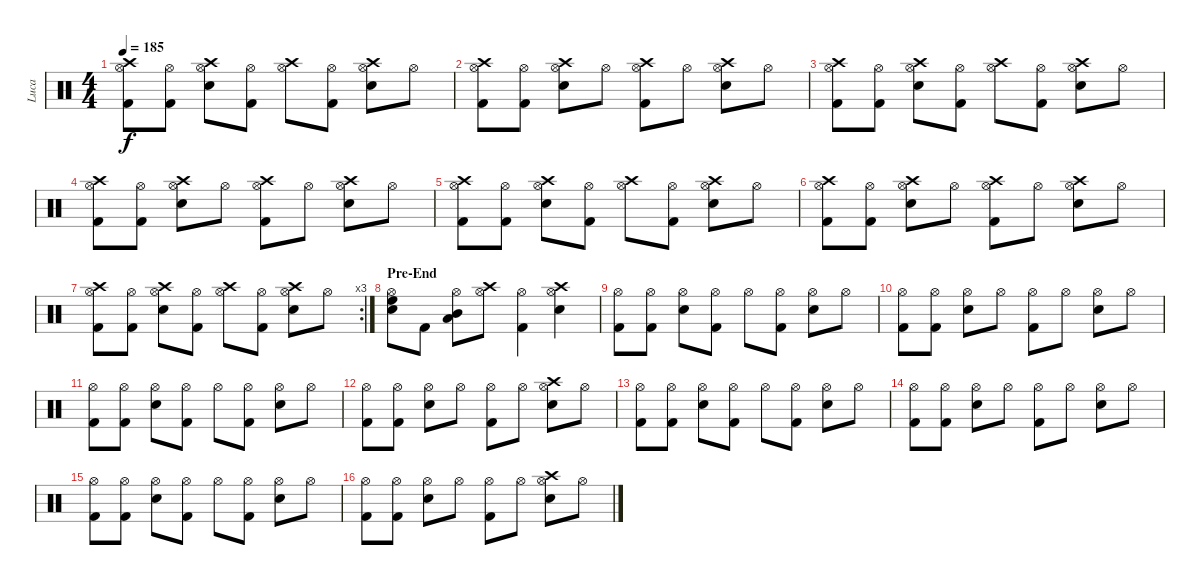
\track ("Luca" "Luca") {instrument percussion}
\staff {score}
\articulation defaults
\ts (4 4)
\tempo 185
\clef neutral
\ks c
("Hi-Hat (open)" "Crash high (hit)" "Kick (hit) 2").8{dy f} ("Hi-Hat (open)" "Kick (hit) 2").8 ("Hi-Hat (open)" "Crash high (hit)" "Snare (hit) 2").8 ("Hi-Hat (open)" "Kick (hit) 2").8 ("Hi-Hat (open)" "Crash high (hit)").8 ("Hi-Hat (open)" "Kick (hit) 2").8 ("Hi-Hat (open)" "Crash high (hit)" "Snare (hit) 2").8 "Hi-Hat (open)".8 |
("Hi-Hat (open)" "Crash high (hit)" "Kick (hit) 2").8 ("Hi-Hat (open)" "Kick (hit) 2").8 ("Hi-Hat (open)" "Crash high (hit)" "Snare (hit) 2").8 "Hi-Hat (open)".8 ("Hi-Hat (open)" "Crash high (hit)" "Kick (hit) 2").8 "Hi-Hat (open)".8 ("Hi-Hat (open)" "Crash high (hit)" "Snare (hit) 2").8 "Hi-Hat (open)".8 |
("Hi-Hat (open)" "Crash high (hit)" "Kick (hit) 2").8 ("Hi-Hat (open)" "Kick (hit) 2").8 ("Hi-Hat (open)" "Crash high (hit)" "Snare (hit) 2").8 ("Hi-Hat (open)" "Kick (hit) 2").8 ("Hi-Hat (open)" "Crash high (hit)").8 ("Hi-Hat (open)" "Kick (hit) 2").8 ("Hi-Hat (open)" "Crash high (hit)" "Snare (hit) 2").8 "Hi-Hat (open)".8 |
("Hi-Hat (open)" "Crash high (hit)" "Kick (hit) 2").8 ("Hi-Hat (open)" "Kick (hit) 2").8 ("Hi-Hat (open)" "Crash high (hit)" "Snare (hit) 2").8 "Hi-Hat (open)".8 ("Hi-Hat (open)" "Crash high (hit)" "Kick (hit) 2").8 "Hi-Hat (open)".8 ("Hi-Hat (open)" "Crash high (hit)" "Snare (hit) 2").8 "Hi-Hat (open)".8 |
("Hi-Hat (open)" "Crash high (hit)" "Kick (hit) 2").8 ("Hi-Hat (open)" "Kick (hit) 2").8 ("Hi-Hat (open)" "Crash high (hit)" "Snare (hit) 2").8 ("Hi-Hat (open)" "Kick (hit) 2").8 ("Hi-Hat (open)" "Crash high (hit)").8 ("Hi-Hat (open)" "Kick (hit) 2").8 ("Hi-Hat (open)" "Crash high (hit)" "Snare (hit) 2").8 "Hi-Hat (open)".8 |
("Hi-Hat (open)" "Crash high (hit)" "Kick (hit) 2").8 ("Hi-Hat (open)" "Kick (hit) 2").8 ("Hi-Hat (open)" "Crash high (hit)" "Snare (hit) 2").8 "Hi-Hat (open)".8 ("Hi-Hat (open)" "Crash high (hit)" "Kick (hit) 2").8 "Hi-Hat (open)".8 ("Hi-Hat (open)" "Crash high (hit)" "Snare (hit) 2").8 "Hi-Hat (open)".8 |
\rc 3
("Hi-Hat (open)" "Crash high (hit)" "Kick (hit) 2").8 ("Hi-Hat (open)" "Kick (hit) 2").8 ("Hi-Hat (open)" "Crash high (hit)" "Snare (hit) 2").8 ("Hi-Hat (open)" "Kick (hit) 2").8 ("Hi-Hat (open)" "Crash high (hit)").8 ("Hi-Hat (open)" "Kick (hit) 2").8 ("Hi-Hat (open)" "Crash high (hit)" "Snare (hit) 2").8 "Hi-Hat (open)".8 |
\section ("" "Pre-End")
("Hi-Hat (open)" "Snare (hit) 2" "High Floor Tom (hit)").8 "Kick (hit) 2".8 ("Hi-Hat (open)" "Mid Tom (hit)" "Low Tom (hit)").8 ("Hi-Hat (open)" "Crash high (hit)").8 ("Hi-Hat (open)" "Kick (hit) 2").4 ("Hi-Hat (open)" "Crash high (hit)" "Snare (hit) 2").4 |
("Hi-Hat (open)" "Kick (hit) 2").8 ("Hi-Hat (open)" "Kick (hit) 2").8 ("Hi-Hat (open)" "Snare (hit) 2").8 ("Hi-Hat (open)" "Kick (hit) 2").8 "Hi-Hat (open)".8 ("Hi-Hat (open)" "Kick (hit) 2").8 ("Hi-Hat (open)" "Snare (hit) 2").8 "Hi-Hat (open)".8 |
("Hi-Hat (open)" "Kick (hit) 2").8 ("Hi-Hat (open)" "Kick (hit) 2").8 ("Hi-Hat (open)" "Snare (hit) 2").8 "Hi-Hat (open)".8 ("Hi-Hat (open)" "Kick (hit) 2").8 "Hi-Hat (open)".8 ("Hi-Hat (open)" "Snare (hit) 2").8 "Hi-Hat (open)".8 |
("Hi-Hat (open)" "Kick (hit) 2").8 ("Hi-Hat (open)" "Kick (hit) 2").8 ("Hi-Hat (open)" "Snare (hit) 2").8 ("Hi-Hat (open)" "Kick (hit) 2").8 "Hi-Hat (open)".8 ("Hi-Hat (open)" "Kick (hit) 2").8 ("Hi-Hat (open)" "Snare (hit) 2").8 "Hi-Hat (open)".8 |
("Hi-Hat (open)" "Kick (hit) 2").8 ("Hi-Hat (open)" "Kick (hit) 2").8 ("Hi-Hat (open)" "Snare (hit) 2").8 "Hi-Hat (open)".8 ("Hi-Hat (open)" "Kick (hit) 2").8 "Hi-Hat (open)".8 ("Hi-Hat (open)" "Crash high (hit)" "Snare (hit) 2").8 "Hi-Hat (open)".8 |
("Hi-Hat (open)" "Kick (hit) 2").8 ("Hi-Hat (open)" "Kick (hit) 2").8 ("Hi-Hat (open)" "Snare (hit) 2").8 ("Hi-Hat (open)" "Kick (hit) 2").8 "Hi-Hat (open)".8 ("Hi-Hat (open)" "Kick (hit) 2").8 ("Hi-Hat (open)" "Snare (hit) 2").8 "Hi-Hat (open)".8 |
("Hi-Hat (open)" "Kick (hit) 2").8 ("Hi-Hat (open)" "Kick (hit) 2").8 ("Hi-Hat (open)" "Snare (hit) 2").8 "Hi-Hat (open)".8 ("Hi-Hat (open)" "Kick (hit) 2").8 "Hi-Hat (open)".8 ("Hi-Hat (open)" "Snare (hit) 2").8 "Hi-Hat (open)".8 |
("Hi-Hat (open)" "Kick (hit) 2").8 ("Hi-Hat (open)" "Kick (hit) 2").8 ("Hi-Hat (open)" "Snare (hit) 2").8 ("Hi-Hat (open)" "Kick (hit) 2").8 "Hi-Hat (open)".8 ("Hi-Hat (open)" "Kick (hit) 2").8 ("Hi-Hat (open)" "Snare (hit) 2").8 "Hi-Hat (open)".8 |
("Hi-Hat (open)" "Kick (hit) 2").8 ("Hi-Hat (open)" "Kick (hit) 2").8 ("Hi-Hat (open)" "Snare (hit) 2").8 "Hi-Hat (open)".8 ("Hi-Hat (open)" "Kick (hit) 2").8 "Hi-Hat (open)".8 ("Hi-Hat (open)" "Crash high (hit)" "Snare (hit) 2").8 "Hi-Hat (open)".8
